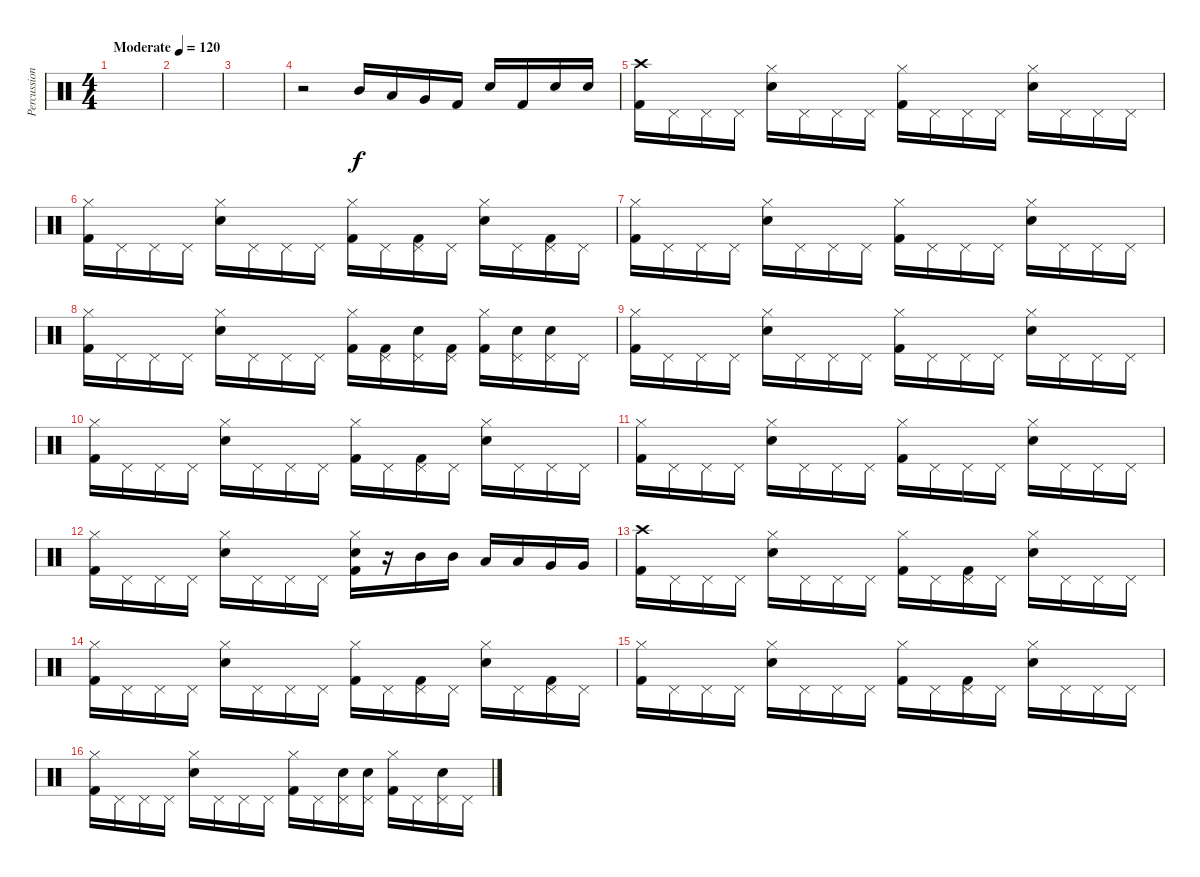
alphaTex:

\track ("Percussion" "Percussion") {instrument percussion}
\staff {score}
\articulation defaults
\ts (4 4)
\tempo (120 "Moderate")
\clef neutral
\ks c
|
|
|
r.2 "Mid Tom (hit)".16 "Low Tom (hit)".16 "Very Low Tom (hit)".16 "Kick (hit) 2".16 "Electric Snare (hit)".16 "Kick (hit) 2".16 "Electric Snare (hit)".16 "Electric Snare (hit)".16 |
("Crash high (hit)" "Kick (hit) 2").16 "Pedal Hi-Hat (hit)".16 "Pedal Hi-Hat (hit)".16 "Pedal Hi-Hat (hit)".16 ("Hi-Hat (closed)" "Electric Snare (hit)").16 "Pedal Hi-Hat (hit)".16 "Pedal Hi-Hat (hit)".16 "Pedal Hi-Hat (hit)".16 ("Hi-Hat (closed)" "Kick (hit) 2").16 "Pedal Hi-Hat (hit)".16 "Pedal Hi-Hat (hit)".16 "Pedal Hi-Hat (hit)".16 ("Hi-Hat (closed)" "Electric Snare (hit)").16 "Pedal Hi-Hat (hit)".16 "Pedal Hi-Hat (hit)".16 "Pedal Hi-Hat (hit)".16 |
("Hi-Hat (closed)" "Kick (hit) 2").16 "Pedal Hi-Hat (hit)".16 "Pedal Hi-Hat (hit)".16 "Pedal Hi-Hat (hit)".16 ("Hi-Hat (closed)" "Electric Snare (hit)").16 "Pedal Hi-Hat (hit)".16 "Pedal Hi-Hat (hit)".16 "Pedal Hi-Hat (hit)".16 ("Hi-Hat (closed)" "Kick (hit) 2").16 "Pedal Hi-Hat (hit)".16 ("Pedal Hi-Hat (hit)" "Kick (hit) 2").16 "Pedal Hi-Hat (hit)".16 ("Hi-Hat (closed)" "Electric Snare (hit)").16 "Pedal Hi-Hat (hit)".16 ("Pedal Hi-Hat (hit)" "Kick (hit) 2").16 "Pedal Hi-Hat (hit)".16 |
("Hi-Hat (closed)" "Kick (hit) 2").16 "Pedal Hi-Hat (hit)".16 "Pedal Hi-Hat (hit)".16 "Pedal Hi-Hat (hit)".16 ("Hi-Hat (closed)" "Electric Snare (hit)").16 "Pedal Hi-Hat (hit)".16 "Pedal Hi-Hat (hit)".16 "Pedal Hi-Hat (hit)".16 ("Hi-Hat (closed)" "Kick (hit) 2").16 "Pedal Hi-Hat (hit)".16 "Pedal Hi-Hat (hit)".16 "Pedal Hi-Hat (hit)".16 ("Hi-Hat (closed)" "Electric Snare (hit)").16 "Pedal Hi-Hat (hit)".16 "Pedal Hi-Hat (hit)".16 "Pedal Hi-Hat (hit)".16 |
("Hi-Hat (closed)" "Kick (hit) 2").16 "Pedal Hi-Hat (hit)".16 "Pedal Hi-Hat (hit)".16 "Pedal Hi-Hat (hit)".16 ("Hi-Hat (closed)" "Electric Snare (hit)").16 "Pedal Hi-Hat (hit)".16 "Pedal Hi-Hat (hit)".16 "Pedal Hi-Hat (hit)".16 ("Hi-Hat (closed)" "Kick (hit) 2").16 ("Pedal Hi-Hat (hit)" "Kick (hit) 2").16 ("Pedal Hi-Hat (hit)" "Electric Snare (hit)").16 ("Pedal Hi-Hat (hit)" "Kick (hit) 2").16 ("Hi-Hat (closed)" "Kick (hit) 2").16 ("Pedal Hi-Hat (hit)" "Electric Snare (hit)").16 ("Pedal Hi-Hat (hit)" "Electric Snare (hit)").16 "Pedal Hi-Hat (hit)".16 |
("Hi-Hat (closed)" "Kick (hit) 2").16 "Pedal Hi-Hat (hit)".16 "Pedal Hi-Hat (hit)".16 "Pedal Hi-Hat (hit)".16 ("Hi-Hat (closed)" "Electric Snare (hit)").16 "Pedal Hi-Hat (hit)".16 "Pedal Hi-Hat (hit)".16 "Pedal Hi-Hat (hit)".16 ("Hi-Hat (closed)" "Kick (hit) 2").16 "Pedal Hi-Hat (hit)".16 "Pedal Hi-Hat (hit)".16 "Pedal Hi-Hat (hit)".16 ("Hi-Hat (closed)" "Electric Snare (hit)").16 "Pedal Hi-Hat (hit)".16 "Pedal Hi-Hat (hit)".16 "Pedal Hi-Hat (hit)".16 |
("Hi-Hat (closed)" "Kick (hit) 2").16 "Pedal Hi-Hat (hit)".16 "Pedal Hi-Hat (hit)".16 "Pedal Hi-Hat (hit)".16 ("Hi-Hat (closed)" "Electric Snare (hit)").16 "Pedal Hi-Hat (hit)".16 "Pedal Hi-Hat (hit)".16 "Pedal Hi-Hat (hit)".16 ("Hi-Hat (closed)" "Kick (hit) 2").16 "Pedal Hi-Hat (hit)".16 ("Pedal Hi-Hat (hit)" "Kick (hit) 2").16 "Pedal Hi-Hat (hit)".16 ("Hi-Hat (closed)" "Electric Snare (hit)").16 "Pedal Hi-Hat (hit)".16 "Pedal Hi-Hat (hit)".16 "Pedal Hi-Hat (hit)".16 |
("Hi-Hat (closed)" "Kick (hit) 2").16 "Pedal Hi-Hat (hit)".16 "Pedal Hi-Hat (hit)".16 "Pedal Hi-Hat (hit)".16 ("Hi-Hat (closed)" "Electric Snare (hit)").16 "Pedal Hi-Hat (hit)".16 "Pedal Hi-Hat (hit)".16 "Pedal Hi-Hat (hit)".16 ("Hi-Hat (closed)" "Kick (hit) 2").16 "Pedal Hi-Hat (hit)".16 "Pedal Hi-Hat (hit)".16 "Pedal Hi-Hat (hit)".16 ("Hi-Hat (closed)" "Electric Snare (hit)").16 "Pedal Hi-Hat (hit)".16 "Pedal Hi-Hat (hit)".16 "Pedal Hi-Hat (hit)".16 |
("Hi-Hat (closed)" "Kick (hit) 2").16 "Pedal Hi-Hat (hit)".16 "Pedal Hi-Hat (hit)".16 "Pedal Hi-Hat (hit)".16 ("Hi-Hat (closed)" "Electric Snare (hit)").16 "Pedal Hi-Hat (hit)".16 "Pedal Hi-Hat (hit)".16 "Pedal Hi-Hat (hit)".16 ("Hi-Hat (closed)" "Electric Snare (hit)" "Kick (hit) 2").16 r.16 "Mid Tom (hit)".16 "Mid Tom (hit)".16 "Low Tom (hit)".16 "Low Tom (hit)".16 "Very Low Tom (hit)".16 "Very Low Tom (hit)".16 |
("Crash high (hit)" "Kick (hit) 2").16 "Pedal Hi-Hat (hit)".16 "Pedal Hi-Hat (hit)".16 "Pedal Hi-Hat (hit)".16 ("Hi-Hat (closed)" "Electric Snare (hit)").16 "Pedal Hi-Hat (hit)".16 "Pedal Hi-Hat (hit)".16 "Pedal Hi-Hat (hit)".16 ("Hi-Hat (closed)" "Kick (hit) 2").16 "Pedal Hi-Hat (hit)".16 ("Pedal Hi-Hat (hit)" "Kick (hit) 2").16 "Pedal Hi-Hat (hit)".16 ("Hi-Hat (closed)" "Electric Snare (hit)").16 "Pedal Hi-Hat (hit)".16 "Pedal Hi-Hat (hit)".16 "Pedal Hi-Hat (hit)".16 |
("Hi-Hat (closed)" "Kick (hit) 2").16 "Pedal Hi-Hat (hit)".16 "Pedal Hi-Hat (hit)".16 "Pedal Hi-Hat (hit)".16 ("Hi-Hat (closed)" "Electric Snare (hit)").16 "Pedal Hi-Hat (hit)".16 "Pedal Hi-Hat (hit)".16 "Pedal Hi-Hat (hit)".16 ("Hi-Hat (closed)" "Kick (hit) 2").16 "Pedal Hi-Hat (hit)".16 ("Pedal Hi-Hat (hit)" "Kick (hit) 2").16 "Pedal Hi-Hat (hit)".16 ("Hi-Hat (closed)" "Electric Snare (hit)").16 "Pedal Hi-Hat (hit)".16 ("Pedal Hi-Hat (hit)" "Kick (hit) 2").16 "Pedal Hi-Hat (hit)".16 |
("Hi-Hat (closed)" "Kick (hit) 2").16 "Pedal Hi-Hat (hit)".16 "Pedal Hi-Hat (hit)".16 "Pedal Hi-Hat (hit)".16 ("Hi-Hat (closed)" "Electric Snare (hit)").16 "Pedal Hi-Hat (hit)".16 "Pedal Hi-Hat (hit)".16 "Pedal Hi-Hat (hit)".16 ("Hi-Hat (closed)" "Kick (hit) 2").16 "Pedal Hi-Hat (hit)".16 ("Pedal Hi-Hat (hit)" "Kick (hit) 2").16 "Pedal Hi-Hat (hit)".16 ("Hi-Hat (closed)" "Electric Snare (hit)").16 "Pedal Hi-Hat (hit)".16 "Pedal Hi-Hat (hit)".16 "Pedal Hi-Hat (hit)".16 |
("Hi-Hat (closed)" "Kick (hit) 2").16 "Pedal Hi-Hat (hit)".16 "Pedal Hi-Hat (hit)".16 "Pedal Hi-Hat (hit)".16 ("Hi-Hat (closed)" "Electric Snare (hit)").16 "Pedal Hi-Hat (hit)".16 "Pedal Hi-Hat (hit)".16 "Pedal Hi-Hat (hit)".16 ("Hi-Hat (closed)" "Kick (hit) 2").16 "Pedal Hi-Hat (hit)".16 ("Pedal Hi-Hat (hit)" "Electric Snare (hit)").16 ("Pedal Hi-Hat (hit)" "Electric Snare (hit)").16 ("Hi-Hat (closed)" "Kick (hit) 2").16 "Pedal Hi-Hat (hit)".16 ("Pedal Hi-Hat (hit)" "Electric Snare (hit)").16 "Pedal Hi-Hat (hit)".16
